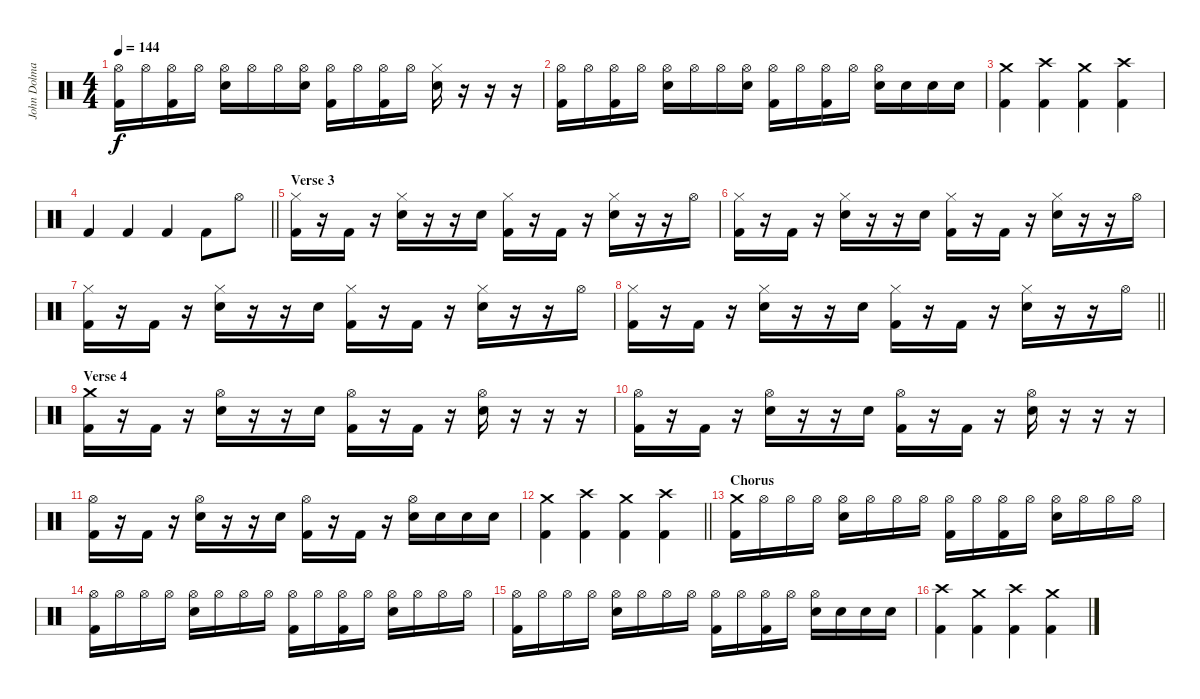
\track ("John Dolmayan" "John Dolma") {instrument percussion}
\staff {score}
\articulation defaults
\ts (4 4)
\tempo 144
\clef neutral
\ks c
("Hi-Hat (open)" "Kick (hit) 2").16{dy f} "Hi-Hat (open)".16 ("Hi-Hat (open)" "Kick (hit) 2").16 "Hi-Hat (open)".16 ("Hi-Hat (open)" "Electric Snare (hit)").16 "Hi-Hat (open)".16 "Hi-Hat (open)".16 ("Hi-Hat (open)" "Electric Snare (hit)").16 ("Hi-Hat (open)" "Kick (hit) 2").16 "Hi-Hat (open)".16 ("Hi-Hat (open)" "Kick (hit) 2").16 "Hi-Hat (open)".16 ("Hi-Hat (closed)" "Electric Snare (hit)").16 r.16 r.16 r.16 |
("Hi-Hat (open)" "Kick (hit) 2").16 "Hi-Hat (open)".16 ("Hi-Hat (open)" "Kick (hit) 2").16 "Hi-Hat (open)".16 ("Hi-Hat (open)" "Electric Snare (hit)").16 "Hi-Hat (open)".16 "Hi-Hat (open)".16 ("Hi-Hat (open)" "Electric Snare (hit)").16 ("Hi-Hat (open)" "Kick (hit) 2").16 "Hi-Hat (open)".16 ("Hi-Hat (open)" "Kick (hit) 2").16 "Hi-Hat (open)".16 ("Hi-Hat (open)" "Electric Snare (hit)").16 "Electric Snare (hit)".16 "Electric Snare (hit)".16 "Electric Snare (hit)".16 |
("Crash medium (hit)" "Kick (hit) 2").4 ("Crash high (hit)" "Kick (hit) 2").4 ("Crash medium (hit)" "Kick (hit) 2").4 ("Crash high (hit)" "Kick (hit) 2").4 |
\barLineRight lightlight "Kick (hit) 2".4 "Kick (hit) 2".4 "Kick (hit) 2".4 "Kick (hit) 2".8 "Hi-Hat (open)".8
|
\section ("" "Verse 3")
("Hi-Hat (closed)" "Kick (hit) 2").16 r.16 "Kick (hit) 2".16 r.16 ("Hi-Hat (closed)" "Electric Snare (hit)").16 r.16 r.16 "Electric Snare (hit)".16 ("Hi-Hat (closed)" "Kick (hit) 2").16 r.16 "Kick (hit) 2".16 r.16 ("Hi-Hat (closed)" "Electric Snare (hit)").16 r.16 r.16 "Hi-Hat (open)".16 |
("Hi-Hat (closed)" "Kick (hit) 2").16 r.16 "Kick (hit) 2".16 r.16 ("Hi-Hat (closed)" "Electric Snare (hit)").16 r.16 r.16 "Electric Snare (hit)".16 ("Hi-Hat (closed)" "Kick (hit) 2").16 r.16 "Kick (hit) 2".16 r.16 ("Hi-Hat (closed)" "Electric Snare (hit)").16 r.16 r.16 "Hi-Hat (open)".16 |
("Hi-Hat (closed)" "Kick (hit) 2").16 r.16 "Kick (hit) 2".16 r.16 ("Hi-Hat (closed)" "Electric Snare (hit)").16 r.16 r.16 "Electric Snare (hit)".16 ("Hi-Hat (closed)" "Kick (hit) 2").16 r.16 "Kick (hit) 2".16 r.16 ("Hi-Hat (closed)" "Electric Snare (hit)").16 r.16 r.16 "Hi-Hat (open)".16 |
\barLineRight lightlight
("Hi-Hat (closed)" "Kick (hit) 2").16 r.16 "Kick (hit) 2".16 r.16 ("Hi-Hat (closed)" "Electric Snare (hit)").16 r.16 r.16 "Electric Snare (hit)".16 ("Hi-Hat (closed)" "Kick (hit) 2").16 r.16 "Kick (hit) 2".16 r.16 ("Hi-Hat (closed)" "Electric Snare (hit)").16 r.16 r.16 "Hi-Hat (open)".16 |
\section ("" "Verse 4")
("Crash medium (hit)" "Kick (hit) 2").16 r.16 "Kick (hit) 2".16 r.16 ("Hi-Hat (open)" "Electric Snare (hit)").16 r.16 r.16 "Electric Snare (hit)".16 ("Hi-Hat (open)" "Kick (hit) 2").16 r.16 "Kick (hit) 2".16 r.16 ("Hi-Hat (open)" "Electric Snare (hit)").16 r.16 r.16 r.16 |
("Hi-Hat (open)" "Kick (hit) 2").16 r.16 "Kick (hit) 2".16 r.16 ("Hi-Hat (open)" "Electric Snare (hit)").16 r.16 r.16 "Electric Snare (hit)".16 ("Hi-Hat (open)" "Kick (hit) 2").16 r.16 "Kick (hit) 2".16 r.16 ("Hi-Hat (open)" "Electric Snare (hit)").16 r.16 r.16 r.16 |
("Hi-Hat (open)" "Kick (hit) 2").16 r.16 "Kick (hit) 2".16 r.16 ("Hi-Hat (open)" "Electric Snare (hit)").16 r.16 r.16 "Electric Snare (hit)".16 ("Hi-Hat (open)" "Kick (hit) 2").16 r.16 "Kick (hit) 2".16 r.16 ("Hi-Hat (open)" "Electric Snare (hit)").16 "Electric Snare (hit)".16 "Electric Snare (hit)".16 "Electric Snare (hit)".16 |
\barLineRight lightlight
("Crash medium (hit)" "Kick (hit) 2").4 ("Crash high (hit)" "Kick (hit) 2").4 ("Crash medium (hit)" "Kick (hit) 2").4 ("Crash high (hit)" "Kick (hit) 2").4 |
\section ("" "Chorus")
("Crash medium (hit)" "Kick (hit) 2").16 "Hi-Hat (open)".16 "Hi-Hat (open)".16 "Hi-Hat (open)".16 ("Hi-Hat (open)" "Electric Snare (hit)").16 "Hi-Hat (open)".16 "Hi-Hat (open)".16 "Hi-Hat (open)".16 ("Hi-Hat (open)" "Kick (hit) 2").16 "Hi-Hat (open)".16 ("Hi-Hat (open)" "Kick (hit) 2").16 "Hi-Hat (open)".16 ("Hi-Hat (open)" "Electric Snare (hit)").16 "Hi-Hat (open)".16 "Hi-Hat (open)".16 "Hi-Hat (open)".16 |
("Hi-Hat (open)" "Kick (hit) 2").16 "Hi-Hat (open)".16 "Hi-Hat (open)".16 "Hi-Hat (open)".16 ("Hi-Hat (open)" "Electric Snare (hit)").16 "Hi-Hat (open)".16 "Hi-Hat (open)".16 "Hi-Hat (open)".16 ("Hi-Hat (open)" "Kick (hit) 2").16 "Hi-Hat (open)".16 ("Hi-Hat (open)" "Kick (hit) 2").16 "Hi-Hat (open)".16 ("Hi-Hat (open)" "Electric Snare (hit)").16 "Hi-Hat (open)".16 "Hi-Hat (open)".16 "Hi-Hat (open)".16 |
("Hi-Hat (open)" "Kick (hit) 2").16 "Hi-Hat (open)".16 "Hi-Hat (open)".16 "Hi-Hat (open)".16 ("Hi-Hat (open)" "Electric Snare (hit)").16 "Hi-Hat (open)".16 "Hi-Hat (open)".16 "Hi-Hat (open)".16 ("Hi-Hat (open)" "Kick (hit) 2").16 "Hi-Hat (open)".16 ("Hi-Hat (open)" "Kick (hit) 2").16 "Hi-Hat (open)".16 ("Hi-Hat (open)" "Electric Snare (hit)").16 "Electric Snare (hit)".16 "Electric Snare (hit)".16 "Electric Snare (hit)".16 |
("Crash high (hit)" "Kick (hit) 2").4 ("Crash medium (hit)" "Kick (hit) 2").4 ("Crash high (hit)" "Kick (hit) 2").4 ("Crash medium (hit)" "Kick (hit) 2").4
